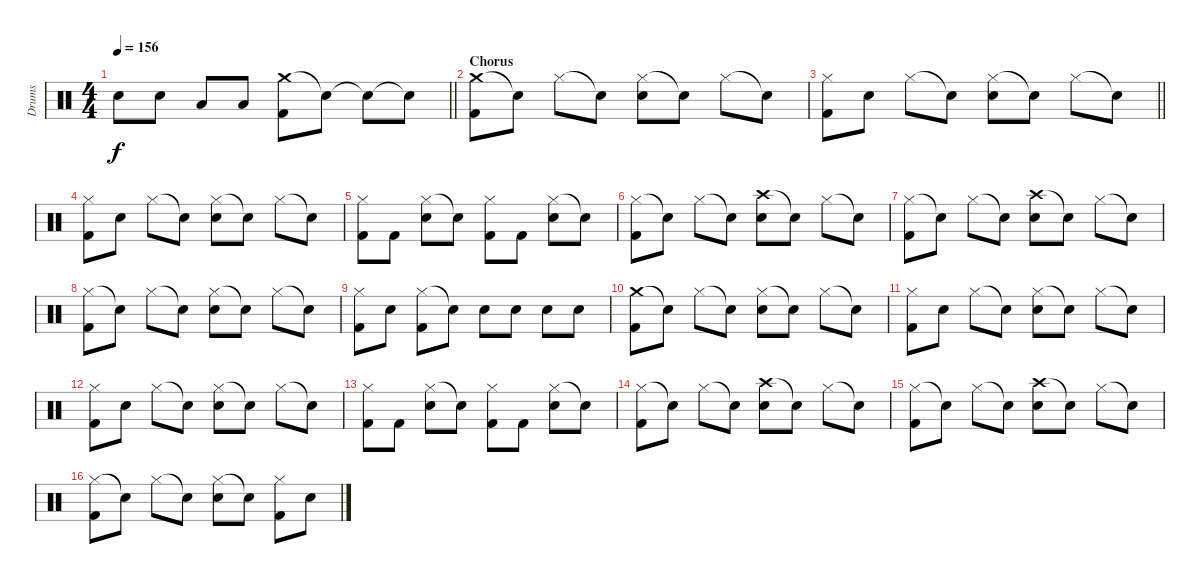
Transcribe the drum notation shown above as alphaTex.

\track ("Drums" "Drums") {instrument percussion}
\staff {score}
\articulation defaults
\ts (4 4)
\tempo 156
\clef neutral
\barLineRight lightlight
\ks c "Snare (hit) 2".8{dy f} "Snare (hit) 2".8 "Low Tom (hit)".8 "Low Tom (hit)".8
("Crash medium (hit)" "Kick (hit) 2").8 "Snare (hit)"{t}.8 "Snare (hit)"{t}.8 "Snare (hit)"{t}.8 |
\section ("" "Chorus")
("Crash medium (hit)" "Kick (hit) 2").8 "Snare (hit)"{t}.8 "Hi-Hat (closed)".8 "Snare (hit)"{t}.8 ("Hi-Hat (closed)" "Snare (hit) 2").8 "Snare (hit)"{t}.8 "Hi-Hat (closed)".8 "Snare (hit)"{t}.8 |
\barLineRight lightlight
("Hi-Hat (closed)" "Kick (hit) 2").8 "Snare (hit) 2".8 "Hi-Hat (closed)".8 "Snare (hit)"{t}.8 ("Hi-Hat (closed)" "Snare (hit) 2").8 "Snare (hit)"{t}.8 "Hi-Hat (closed)".8 "Snare (hit)"{t}.8 |
\section ("" "")
("Hi-Hat (closed)" "Kick (hit) 2").8 "Snare (hit) 2".8 "Hi-Hat (closed)".8 "Snare (hit)"{t}.8 ("Hi-Hat (closed)" "Snare (hit) 2").8 "Snare (hit)"{t}.8 "Hi-Hat (closed)".8 "Snare (hit)"{t}.8 |
("Hi-Hat (closed)" "Kick (hit) 2").8 "Kick (hit) 2".8 ("Hi-Hat (closed)" "Snare (hit) 2").8 "Snare (hit)"{t}.8 ("Hi-Hat (closed)" "Kick (hit) 2").8 "Kick (hit) 2".8 ("Hi-Hat (closed)" "Snare (hit) 2").8 "Snare (hit)"{t}.8 |
("Hi-Hat (closed)" "Kick (hit) 2").8 "Snare (hit)"{t}.8 "Hi-Hat (closed)".8 "Snare (hit)"{t}.8 ("Crash high (hit)" "Snare (hit) 2").8 "Snare (hit)"{t}.8 "Hi-Hat (closed)".8 "Snare (hit)"{t}.8 |
("Hi-Hat (closed)" "Kick (hit) 2").8 "Snare (hit)"{t}.8 "Hi-Hat (closed)".8 "Snare (hit)"{t}.8 ("Crash high (hit)" "Snare (hit) 2").8 "Snare (hit)"{t}.8 "Hi-Hat (closed)".8 "Snare (hit)"{t}.8 |
("Hi-Hat (closed)" "Kick (hit) 2").8 "Snare (hit)"{t}.8 "Hi-Hat (closed)".8 "Snare (hit)"{t}.8 ("Hi-Hat (closed)" "Snare (hit) 2").8 "Snare (hit)"{t}.8 "Hi-Hat (closed)".8 "Snare (hit)"{t}.8 |
("Hi-Hat (closed)" "Kick (hit) 2").8 "Snare (hit) 2".8 ("Hi-Hat (closed)" "Kick (hit) 2").8 "Snare (hit)"{t}.8 "Snare (hit) 2".8 "Snare (hit) 2".8 "Snare (hit) 2".8 "Snare (hit) 2".8 |
("Crash medium (hit)" "Kick (hit) 2").8 "Snare (hit)"{t}.8 "Hi-Hat (closed)".8 "Snare (hit)"{t}.8 ("Hi-Hat (closed)" "Snare (hit) 2").8 "Snare (hit)"{t}.8 "Hi-Hat (closed)".8 "Snare (hit)"{t}.8 |
("Hi-Hat (closed)" "Kick (hit) 2").8 "Snare (hit) 2".8 "Hi-Hat (closed)".8 "Snare (hit)"{t}.8 ("Hi-Hat (closed)" "Snare (hit) 2").8 "Snare (hit)"{t}.8 "Hi-Hat (closed)".8 "Snare (hit)"{t}.8 |
("Hi-Hat (closed)" "Kick (hit) 2").8 "Snare (hit) 2".8 "Hi-Hat (closed)".8 "Snare (hit)"{t}.8 ("Hi-Hat (closed)" "Snare (hit) 2").8 "Snare (hit)"{t}.8 "Hi-Hat (closed)".8 "Snare (hit)"{t}.8 |
("Hi-Hat (closed)" "Kick (hit) 2").8 "Kick (hit) 2".8 ("Hi-Hat (closed)" "Snare (hit) 2").8 "Snare (hit)"{t}.8 ("Hi-Hat (closed)" "Kick (hit) 2").8 "Kick (hit) 2".8 ("Hi-Hat (closed)" "Snare (hit) 2").8 "Snare (hit)"{t}.8 |
("Hi-Hat (closed)" "Kick (hit) 2").8 "Snare (hit)"{t}.8 "Hi-Hat (closed)".8 "Snare (hit)"{t}.8 ("Crash high (hit)" "Snare (hit) 2").8 "Snare (hit)"{t}.8 "Hi-Hat (closed)".8 "Snare (hit)"{t}.8 |
("Hi-Hat (closed)" "Kick (hit) 2").8 "Snare (hit)"{t}.8 "Hi-Hat (closed)".8 "Snare (hit)"{t}.8 ("Crash high (hit)" "Snare (hit) 2").8 "Snare (hit)"{t}.8 "Hi-Hat (closed)".8 "Snare (hit)"{t}.8 |
("Hi-Hat (closed)" "Kick (hit) 2").8 "Snare (hit)"{t}.8 "Hi-Hat (closed)".8 "Snare (hit)"{t}.8 ("Hi-Hat (closed)" "Snare (hit) 2").8 "Snare (hit)"{t}.8 ("Hi-Hat (closed)" "Kick (hit) 2").8 "Snare (hit) 2".8
